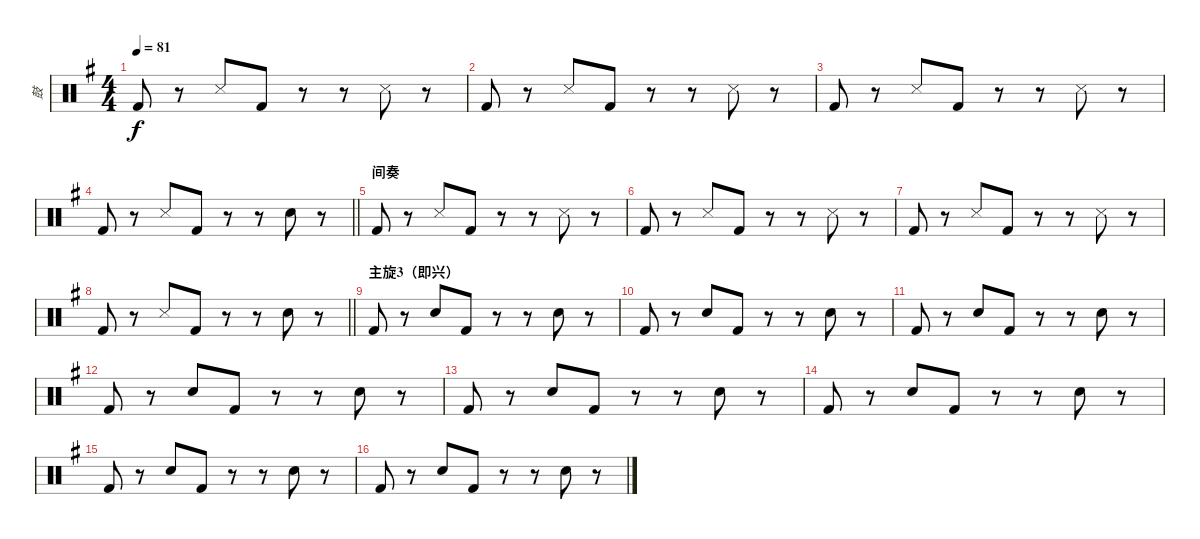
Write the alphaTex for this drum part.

\track ("鼓" "鼓") {instrument percussion}
\staff {score}
\articulation defaults
\ts (4 4)
\tempo 81
\clef neutral
\ks g "Kick (hit) 2".8{dy f}
r.8 "Metronome (hit)".8 "Kick (hit) 2".8 r.8 r.8 "Metronome (hit)".8 r.8 |
"Kick (hit) 2".8 r.8 "Metronome (hit)".8 "Kick (hit) 2".8 r.8 r.8 "Metronome (hit)".8 r.8 |
"Kick (hit) 2".8 r.8 "Metronome (hit)".8 "Kick (hit) 2".8 r.8 r.8 "Metronome (hit)".8 r.8 |
\barLineRight lightlight "Kick (hit) 2".8
r.8 "Metronome (hit)".8 "Kick (hit) 2".8 r.8 r.8 "Electric Snare (hit)".8 r.8 |
\section ("" "间奏")
"Kick (hit) 2".8 r.8 "Metronome (hit)".8 "Kick (hit) 2".8 r.8 r.8 "Metronome (hit)".8 r.8 |
"Kick (hit) 2".8 r.8 "Metronome (hit)".8 "Kick (hit) 2".8 r.8 r.8 "Metronome (hit)".8 r.8 |
"Kick (hit) 2".8 r.8 "Metronome (hit)".8 "Kick (hit) 2".8 r.8 r.8 "Metronome (hit)".8 r.8 |
\barLineRight lightlight "Kick (hit) 2".8
r.8 "Metronome (hit)".8 "Kick (hit) 2".8 r.8 r.8 "Electric Snare (hit)".8 r.8 |
\section ("" "主旋3（即兴）")
"Kick (hit) 2".8 r.8 "Electric Snare (hit)".8 "Kick (hit) 2".8 r.8 r.8 "Electric Snare (hit)".8 r.8 |
"Kick (hit) 2".8 r.8 "Electric Snare (hit)".8 "Kick (hit) 2".8 r.8 r.8 "Electric Snare (hit)".8 r.8 |
"Kick (hit) 2".8 r.8 "Electric Snare (hit)".8 "Kick (hit) 2".8 r.8 r.8 "Electric Snare (hit)".8 r.8 |
"Kick (hit) 2".8 r.8 "Electric Snare (hit)".8 "Kick (hit) 2".8 r.8 r.8 "Electric Snare (hit)".8 r.8 |
"Kick (hit) 2".8 r.8 "Electric Snare (hit)".8 "Kick (hit) 2".8 r.8 r.8 "Electric Snare (hit)".8 r.8 |
"Kick (hit) 2".8 r.8 "Electric Snare (hit)".8 "Kick (hit) 2".8 r.8 r.8 "Electric Snare (hit)".8 r.8 |
"Kick (hit) 2".8 r.8 "Electric Snare (hit)".8 "Kick (hit) 2".8 r.8 r.8 "Electric Snare (hit)".8 r.8 |
"Kick (hit) 2".8 r.8 "Electric Snare (hit)".8 "Kick (hit) 2".8 r.8 r.8 "Electric Snare (hit)".8 r.8
